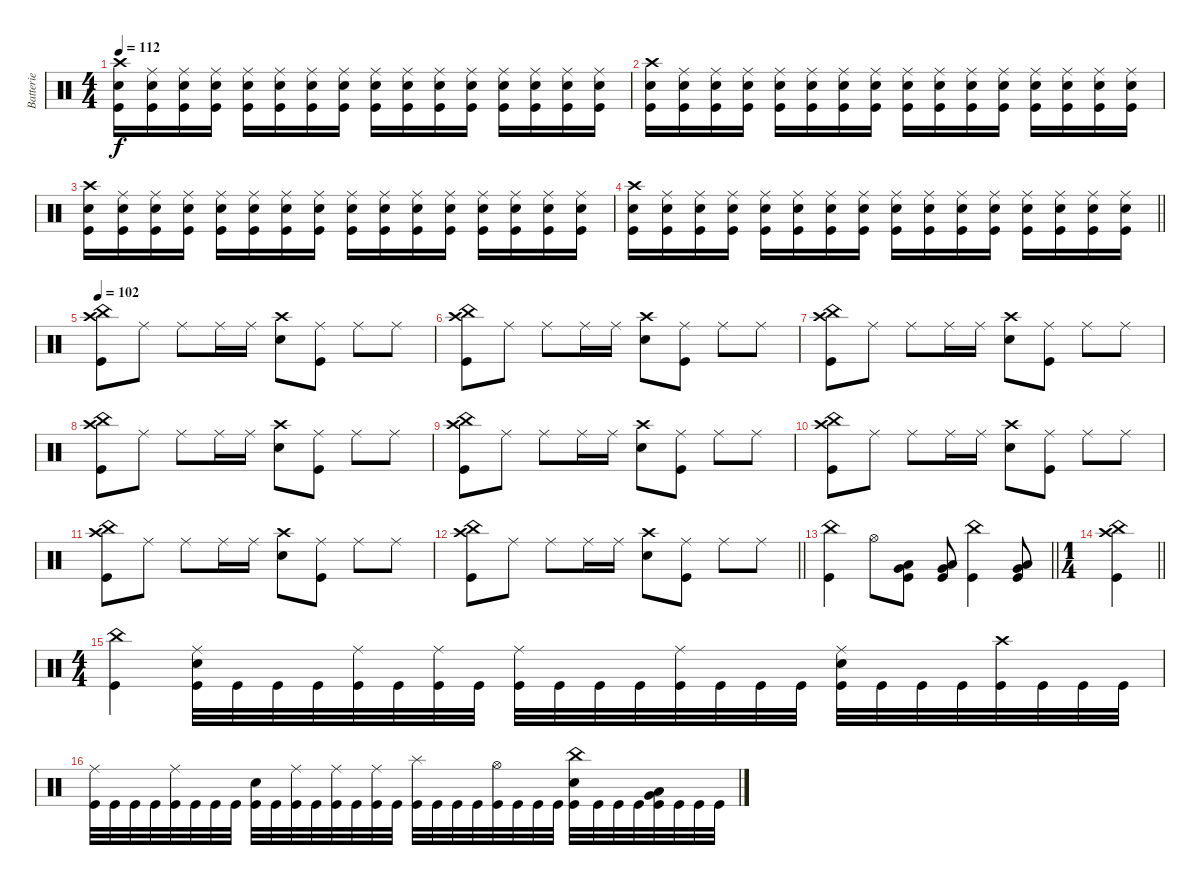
\track ("Batterie" "Batterie") {instrument percussion}
\staff {score}
\articulation defaults
\ts (4 4)
\tempo 112
\clef neutral
\ks c
("Crash high (hit)" "Electric Snare (hit)" "Kick (hit)").16{dy f} ("Ride (middle)" "Electric Snare (hit)" "Kick (hit)").16 ("Ride (middle)" "Electric Snare (hit)" "Kick (hit)").16 ("Ride (middle)" "Electric Snare (hit)" "Kick (hit)").16 ("Ride (middle)" "Electric Snare (hit)" "Kick (hit)").16 ("Ride (middle)" "Electric Snare (hit)" "Kick (hit)").16 ("Ride (middle)" "Electric Snare (hit)" "Kick (hit)").16 ("Ride (middle)" "Electric Snare (hit)" "Kick (hit)").16 ("Ride (middle)" "Electric Snare (hit)" "Kick (hit)").16 ("Ride (middle)" "Electric Snare (hit)" "Kick (hit)").16 ("Ride (middle)" "Electric Snare (hit)" "Kick (hit)").16 ("Ride (middle)" "Electric Snare (hit)" "Kick (hit)").16 ("Ride (middle)" "Electric Snare (hit)" "Kick (hit)").16 ("Ride (middle)" "Electric Snare (hit)" "Kick (hit)").16 ("Ride (middle)" "Electric Snare (hit)" "Kick (hit)").16 ("Ride (middle)" "Electric Snare (hit)" "Kick (hit)").16 |
("Crash high (hit)" "Electric Snare (hit)" "Kick (hit)").16 ("Ride (middle)" "Electric Snare (hit)" "Kick (hit)").16 ("Ride (middle)" "Electric Snare (hit)" "Kick (hit)").16 ("Ride (middle)" "Electric Snare (hit)" "Kick (hit)").16 ("Ride (middle)" "Electric Snare (hit)" "Kick (hit)").16 ("Ride (middle)" "Electric Snare (hit)" "Kick (hit)").16 ("Ride (middle)" "Electric Snare (hit)" "Kick (hit)").16 ("Ride (middle)" "Electric Snare (hit)" "Kick (hit)").16 ("Ride (middle)" "Electric Snare (hit)" "Kick (hit)").16 ("Ride (middle)" "Electric Snare (hit)" "Kick (hit)").16 ("Ride (middle)" "Electric Snare (hit)" "Kick (hit)").16 ("Ride (middle)" "Electric Snare (hit)" "Kick (hit)").16 ("Ride (middle)" "Electric Snare (hit)" "Kick (hit)").16 ("Ride (middle)" "Electric Snare (hit)" "Kick (hit)").16 ("Ride (middle)" "Electric Snare (hit)" "Kick (hit)").16 ("Ride (middle)" "Electric Snare (hit)" "Kick (hit)").16 |
("Crash high (hit)" "Electric Snare (hit)" "Kick (hit)").16 ("Ride (middle)" "Electric Snare (hit)" "Kick (hit)").16 ("Ride (middle)" "Electric Snare (hit)" "Kick (hit)").16 ("Ride (middle)" "Electric Snare (hit)" "Kick (hit)").16 ("Ride (middle)" "Electric Snare (hit)" "Kick (hit)").16 ("Ride (middle)" "Electric Snare (hit)" "Kick (hit)").16 ("Ride (middle)" "Electric Snare (hit)" "Kick (hit)").16 ("Ride (middle)" "Electric Snare (hit)" "Kick (hit)").16 ("Ride (middle)" "Electric Snare (hit)" "Kick (hit)").16 ("Ride (middle)" "Electric Snare (hit)" "Kick (hit)").16 ("Ride (middle)" "Electric Snare (hit)" "Kick (hit)").16 ("Ride (middle)" "Electric Snare (hit)" "Kick (hit)").16 ("Ride (middle)" "Electric Snare (hit)" "Kick (hit)").16 ("Ride (middle)" "Electric Snare (hit)" "Kick (hit)").16 ("Ride (middle)" "Electric Snare (hit)" "Kick (hit)").16 ("Ride (middle)" "Electric Snare (hit)" "Kick (hit)").16 |
\barLineRight lightlight
("Crash high (hit)" "Electric Snare (hit)" "Kick (hit)").16 ("Ride (middle)" "Electric Snare (hit)" "Kick (hit)").16 ("Ride (middle)" "Electric Snare (hit)" "Kick (hit)").16 ("Ride (middle)" "Electric Snare (hit)" "Kick (hit)").16 ("Ride (middle)" "Electric Snare (hit)" "Kick (hit)").16 ("Ride (middle)" "Electric Snare (hit)" "Kick (hit)").16 ("Ride (middle)" "Electric Snare (hit)" "Kick (hit)").16 ("Ride (middle)" "Electric Snare (hit)" "Kick (hit)").16 ("Ride (middle)" "Electric Snare (hit)" "Kick (hit)").16 ("Ride (middle)" "Electric Snare (hit)" "Kick (hit)").16 ("Ride (middle)" "Electric Snare (hit)" "Kick (hit)").16 ("Ride (middle)" "Electric Snare (hit)" "Kick (hit)").16 ("Ride (middle)" "Electric Snare (hit)" "Kick (hit)").16 ("Ride (middle)" "Electric Snare (hit)" "Kick (hit)").16 ("Ride (middle)" "Electric Snare (hit)" "Kick (hit)").16 ("Ride (middle)" "Electric Snare (hit)" "Kick (hit)").16 |
\tempo 102
("China (hit)" "Crash high (hit)" "Kick (hit)").8 "Ride (middle)".8 "Ride (middle)".8 "Ride (middle)".16 "Ride (middle)".16 ("Crash high (hit)" "Electric Snare (hit)").8 ("Ride (middle)" "Kick (hit)").8 "Ride (middle)".8 "Ride (middle)".8 |
("China (hit)" "Crash high (hit)" "Kick (hit)").8 "Ride (middle)".8 "Ride (middle)".8 "Ride (middle)".16 "Ride (middle)".16 ("Crash high (hit)" "Electric Snare (hit)").8 ("Ride (middle)" "Kick (hit)").8 "Ride (middle)".8 "Ride (middle)".8 |
("China (hit)" "Crash high (hit)" "Kick (hit)").8 "Ride (middle)".8 "Ride (middle)".8 "Ride (middle)".16 "Ride (middle)".16 ("Crash high (hit)" "Electric Snare (hit)").8 ("Ride (middle)" "Kick (hit)").8 "Ride (middle)".8 "Ride (middle)".8 |
("China (hit)" "Crash high (hit)" "Kick (hit)").8 "Ride (middle)".8 "Ride (middle)".8 "Ride (middle)".16 "Ride (middle)".16 ("Crash high (hit)" "Electric Snare (hit)").8 ("Ride (middle)" "Kick (hit)").8 "Ride (middle)".8 "Ride (middle)".8 |
("China (hit)" "Crash high (hit)" "Kick (hit)").8 "Ride (middle)".8 "Ride (middle)".8 "Ride (middle)".16 "Ride (middle)".16 ("Crash high (hit)" "Electric Snare (hit)").8 ("Ride (middle)" "Kick (hit)").8 "Ride (middle)".8 "Ride (middle)".8 |
("China (hit)" "Crash high (hit)" "Kick (hit)").8 "Ride (middle)".8 "Ride (middle)".8 "Ride (middle)".16 "Ride (middle)".16 ("Crash high (hit)" "Electric Snare (hit)").8 ("Ride (middle)" "Kick (hit)").8 "Ride (middle)".8 "Ride (middle)".8 |
("China (hit)" "Crash high (hit)" "Kick (hit)").8 "Ride (middle)".8 "Ride (middle)".8 "Ride (middle)".16 "Ride (middle)".16 ("Crash high (hit)" "Electric Snare (hit)").8 ("Ride (middle)" "Kick (hit)").8 "Ride (middle)".8 "Ride (middle)".8 |
\barLineRight lightlight
("China (hit)" "Crash high (hit)" "Kick (hit)").8 "Ride (middle)".8 "Ride (middle)".8 "Ride (middle)".16 "Ride (middle)".16 ("Crash high (hit)" "Electric Snare (hit)").8 ("Ride (middle)" "Kick (hit)").8 "Ride (middle)".8 "Ride (middle)".8 |
\barLineRight lightlight
("China (hit)" "Kick (hit)").4 "Hi-Hat (open)".8 ("Very Low Tom (hit)" "Low Floor Tom (hit)" "Kick (hit)").8 ("Very Low Tom (hit)" "Low Floor Tom (hit)" "Kick (hit)").8 ("China (hit)" "Kick (hit)").4 ("Very Low Tom (hit)" "Low Floor Tom (hit)" "Kick (hit)").8 |
\ts (1 4)
\barLineRight lightlight
("China (hit)" "Crash high (hit)" "Kick (hit)").4 |
\ts (4 4)
("China (hit)" "Kick (hit)").4 ("Ride (middle)" "Electric Snare (hit)" "Kick (hit)").32 "Kick (hit)".32 "Kick (hit)".32 "Kick (hit)".32 ("Ride (middle)" "Kick (hit)").32 "Kick (hit)".32 ("Ride (middle)" "Kick (hit)").32 "Kick (hit)".32 ("Ride (middle)" "Kick (hit)").32 "Kick (hit)".32 "Kick (hit)".32 "Kick (hit)".32 ("Ride (middle)" "Kick (hit)").32 "Kick (hit)".32 "Kick (hit)".32 "Kick (hit)".32 ("Ride (middle)" "Electric Snare (hit)" "Kick (hit)").32 "Kick (hit)".32 "Kick (hit)".32 "Kick (hit)".32 ("Crash high (hit)" "Kick (hit)").32 "Kick (hit)".32 "Kick (hit)".32 "Kick (hit)".32 |
("Ride (middle)" "Kick (hit)").32 "Kick (hit)".32 "Kick (hit)".32 "Kick (hit)".32 ("Ride (middle)" "Kick (hit)").32 "Kick (hit)".32 "Kick (hit)".32 "Kick (hit)".32 ("Electric Snare (hit)" "Kick (hit)").32 "Kick (hit)".32 ("Ride (middle)" "Kick (hit)").32 "Kick (hit)".32 ("Ride (middle)" "Kick (hit)").32 "Kick (hit)".32 ("Ride (middle)" "Kick (hit)").32 "Kick (hit)".32 ("Splash (hit)" "Kick (hit)").32 "Kick (hit)".32 "Kick (hit)".32 "Kick (hit)".32 ("Hi-Hat (open)" "Kick (hit)").32 "Kick (hit)".32 "Kick (hit)".32 "Kick (hit)".32 ("China (hit)" "Electric Snare (hit)" "Kick (hit)").32 "Kick (hit)".32 "Kick (hit)".32 "Kick (hit)".32 ("Very Low Tom (hit)" "Low Floor Tom (hit)" "Kick (hit)").32 "Kick (hit)".32 "Kick (hit)".32 "Kick (hit)".32
